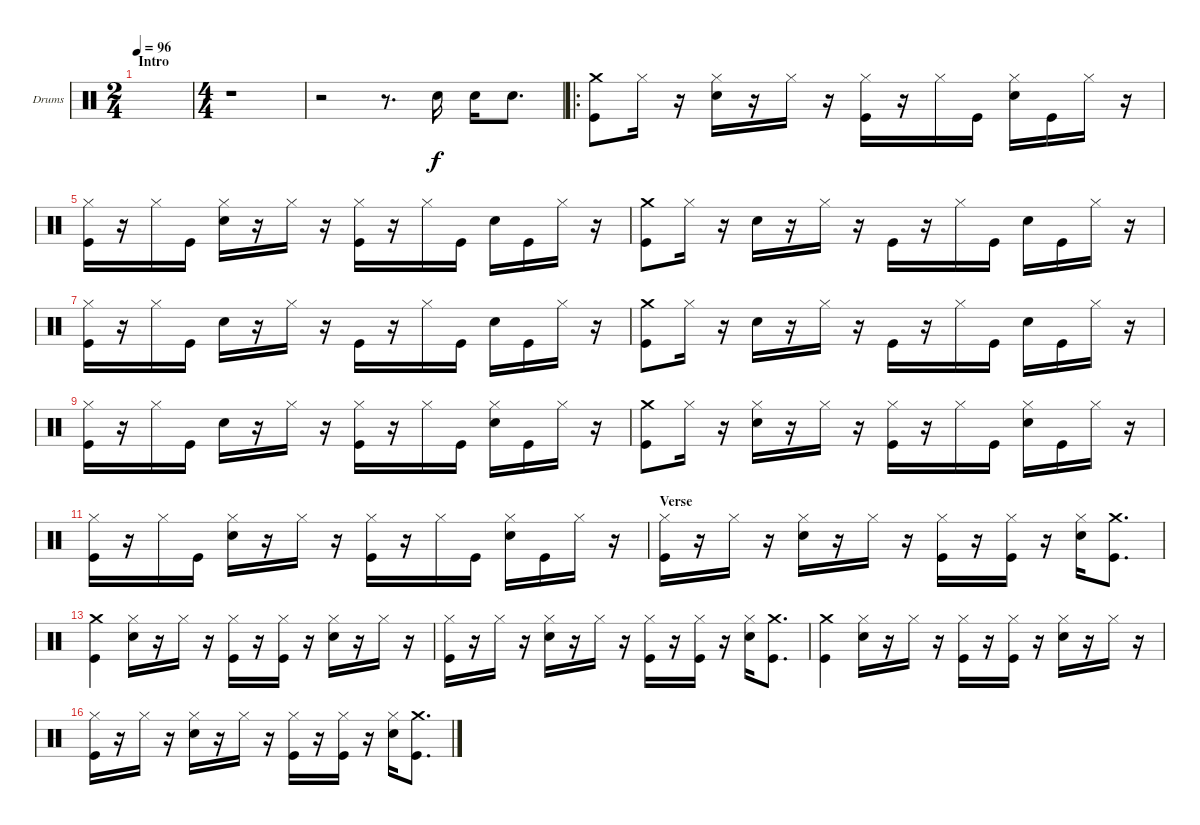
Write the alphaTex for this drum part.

\bracketExtendMode nobrackets
\firstSystemTrackNameOrientation horizontal
\otherSystemsTrackNameOrientation horizontal
\defaultBarNumberDisplay FirstOfSystem
\track ("Drumkit" "Drums") {instrument percussion}
\staff {score}
\articulation defaults
\ts (2 4)
\section ("" "Intro")
\tempo 96
\clef neutral
\ks c
|
\ts (4 4)
r.1 |
r.2 r.8{d} "Snare (hit) 2".16 "Snare (hit) 2".16 "Snare (hit) 2".8{d} |
\ro
("Crash medium (hit)" "Kick (hit)").8 "Hi-Hat (closed)".16 r.16 ("Snare (hit) 2" "Hi-Hat (closed)").16 r.16 "Hi-Hat (closed)".16 r.16 ("Kick (hit)" "Hi-Hat (closed)").16 r.16 "Hi-Hat (closed)".16 "Kick (hit)".16 ("Snare (hit) 2" "Hi-Hat (closed)").16 "Kick (hit)".16 "Hi-Hat (closed)".16 r.16 |
("Hi-Hat (closed)" "Kick (hit)").16 r.16 "Hi-Hat (closed)".16 "Kick (hit)".16 ("Snare (hit) 2" "Hi-Hat (closed)").16 r.16 "Hi-Hat (closed)".16 r.16 ("Kick (hit)" "Hi-Hat (closed)").16 r.16 "Hi-Hat (closed)".16 "Kick (hit)".16 "Snare (hit) 2".16 "Kick (hit)".16 "Hi-Hat (closed)".16 r.16 |
("Crash medium (hit)" "Kick (hit)").8 "Hi-Hat (closed)".16 r.16 "Snare (hit) 2".16 r.16 "Hi-Hat (closed)".16 r.16 "Kick (hit)".16 r.16 "Hi-Hat (closed)".16 "Kick (hit)".16 "Snare (hit) 2".16 "Kick (hit)".16 "Hi-Hat (closed)".16 r.16 |
("Hi-Hat (closed)" "Kick (hit)").16 r.16 "Hi-Hat (closed)".16 "Kick (hit)".16 "Snare (hit) 2".16 r.16 "Hi-Hat (closed)".16 r.16 "Kick (hit)".16 r.16 "Hi-Hat (closed)".16 "Kick (hit)".16 "Snare (hit) 2".16 "Kick (hit)".16 "Hi-Hat (closed)".16 r.16 |
("Kick (hit)" "Crash medium (hit)").8 "Hi-Hat (closed)".16 r.16 "Snare (hit) 2".16 r.16 "Hi-Hat (closed)".16 r.16 "Kick (hit)".16 r.16 "Hi-Hat (closed)".16 "Kick (hit)".16 "Snare (hit) 2".16 "Kick (hit)".16 "Hi-Hat (closed)".16 r.16 |
("Hi-Hat (closed)" "Kick (hit)").16 r.16 "Hi-Hat (closed)".16 "Kick (hit)".16 "Snare (hit) 2".16 r.16 "Hi-Hat (closed)".16 r.16 ("Kick (hit)" "Hi-Hat (closed)").16 r.16 "Hi-Hat (closed)".16 "Kick (hit)".16 ("Snare (hit) 2" "Hi-Hat (closed)").16 "Kick (hit)".16 "Hi-Hat (closed)".16 r.16 |
("Kick (hit)" "Crash medium (hit)").8 "Hi-Hat (closed)".16 r.16 ("Snare (hit) 2" "Hi-Hat (closed)").16 r.16 "Hi-Hat (closed)".16 r.16 ("Kick (hit)" "Hi-Hat (closed)").16 r.16 "Hi-Hat (closed)".16 "Kick (hit)".16 ("Snare (hit) 2" "Hi-Hat (closed)").16 "Kick (hit)".16 "Hi-Hat (closed)".16 r.16 |
("Hi-Hat (closed)" "Kick (hit)").16 r.16 "Hi-Hat (closed)".16 "Kick (hit)".16 ("Snare (hit) 2" "Hi-Hat (closed)").16 r.16 "Hi-Hat (closed)".16 r.16 ("Kick (hit)" "Hi-Hat (closed)").16 r.16 "Hi-Hat (closed)".16 "Kick (hit)".16 ("Snare (hit) 2" "Hi-Hat (closed)").16 "Kick (hit)".16 "Hi-Hat (closed)".16 r.16 |
\section ("" "Verse")
\scale
0.245714 ("Hi-Hat (closed)" "Kick (hit)").16 r.16 "Hi-Hat (closed)".16 r.16 ("Snare (hit) 2" "Hi-Hat (closed)").16 r.16 "Hi-Hat (closed)".16 r.16 ("Kick (hit)" "Hi-Hat (closed)").16 r.16 ("Kick (hit)" "Hi-Hat (closed)").16 r.16 ("Hi-Hat (closed)" "Snare (hit) 2").16 ("Crash medium (hit)" "Kick (hit)").8{d} |
\scale
0.254286 ("Crash medium (hit)" "Kick (hit)").4 ("Snare (hit) 2" "Hi-Hat (closed)").16 r.16 "Hi-Hat (closed)".16 r.16 ("Kick (hit)" "Hi-Hat (closed)").16 r.16 ("Kick (hit)" "Hi-Hat (closed)").16 r.16 ("Snare (hit) 2" "Hi-Hat (closed)").16 r.16 "Hi-Hat (closed)".16 r.16 |
\scale
0.25 ("Hi-Hat (closed)" "Kick (hit)").16 r.16 "Hi-Hat (closed)".16 r.16 ("Snare (hit) 2" "Hi-Hat (closed)").16 r.16 "Hi-Hat (closed)".16 r.16 ("Hi-Hat (closed)" "Kick (hit)").16 r.16 ("Kick (hit)" "Hi-Hat (closed)").16 r.16 ("Hi-Hat (closed)" "Snare (hit) 2").16 ("Crash medium (hit)" "Kick (hit)").8{d} |
\scale
0.25 ("Crash medium (hit)" "Kick (hit)").4 ("Snare (hit) 2" "Hi-Hat (closed)").16 r.16 "Hi-Hat (closed)".16 r.16 ("Kick (hit)" "Hi-Hat (closed)").16 r.16 ("Kick (hit)" "Hi-Hat (closed)").16 r.16 ("Snare (hit) 2" "Hi-Hat (closed)").16 r.16 "Hi-Hat (closed)".16 r.16 |
("Hi-Hat (closed)" "Kick (hit)").16 r.16 "Hi-Hat (closed)".16 r.16 ("Snare (hit) 2" "Hi-Hat (closed)").16 r.16 "Hi-Hat (closed)".16 r.16 ("Hi-Hat (closed)" "Kick (hit)").16 r.16 ("Kick (hit)" "Hi-Hat (closed)").16 r.16 ("Hi-Hat (closed)" "Snare (hit) 2").16 ("Crash medium (hit)" "Kick (hit)").8{d}
